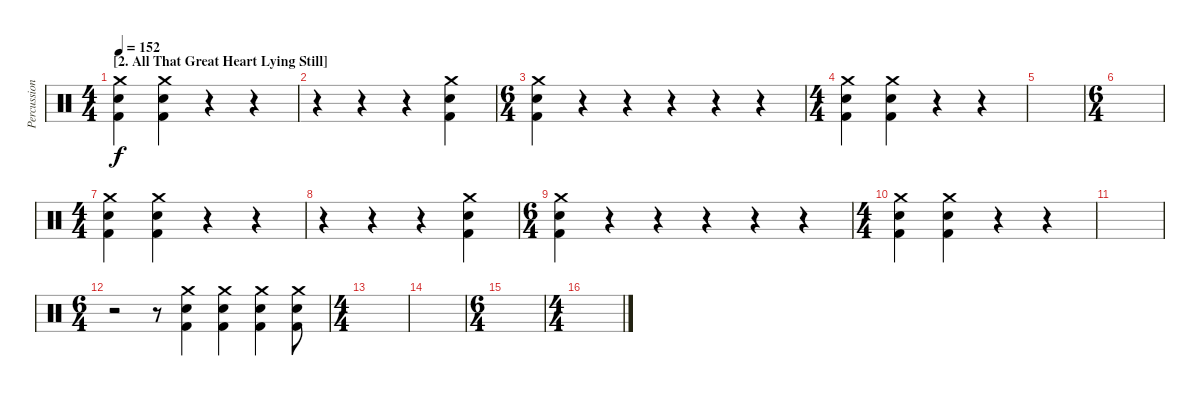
\track ("Percussion" "Percussion") {instrument percussion}
\staff {score}
\articulation defaults
\ts (4 4)
\section ("" "[2. All That Great Heart Lying Still]")
\tempo 152
\clef neutral
\ks c
("Crash medium (hit)" "Snare (hit) 2" "Kick (hit) 2").4{dy f} ("Crash medium (hit)" "Snare (hit) 2" "Kick (hit) 2").4 r.4 r.4 |
r.4 r.4 r.4 ("Crash medium (hit)" "Snare (hit) 2" "Kick (hit) 2").4 |
\ts (6 4)
("Crash medium (hit)" "Snare (hit) 2" "Kick (hit) 2").4 r.4 r.4 r.4 r.4 r.4 |
\ts (4 4)
("Crash medium (hit)" "Snare (hit) 2" "Kick (hit) 2").4 ("Crash medium (hit)" "Snare (hit) 2" "Kick (hit) 2").4 r.4 r.4 |
|
\ts (6 4)
|
\ts (4 4)
("Crash medium (hit)" "Snare (hit) 2" "Kick (hit) 2").4 ("Crash medium (hit)" "Snare (hit) 2" "Kick (hit) 2").4 r.4 r.4 |
r.4 r.4 r.4 ("Crash medium (hit)" "Snare (hit) 2" "Kick (hit) 2").4 |
\ts (6 4)
("Crash medium (hit)" "Snare (hit) 2" "Kick (hit) 2").4 r.4 r.4 r.4 r.4 r.4 |
\ts (4 4)
("Crash medium (hit)" "Snare (hit) 2" "Kick (hit) 2").4 ("Crash medium (hit)" "Snare (hit) 2" "Kick (hit) 2").4 r.4 r.4 |
|
\ts (6 4)
r.2 r.8 ("Crash medium (hit)" "Snare (hit) 2" "Kick (hit) 2").4 ("Crash medium (hit)" "Snare (hit) 2" "Kick (hit) 2").4 ("Crash medium (hit)" "Snare (hit) 2" "Kick (hit) 2").4 ("Crash medium (hit)" "Snare (hit) 2" "Kick (hit) 2").8 |
\ts (4 4)
|
|
\ts (6 4)
|
\ts (4 4)
